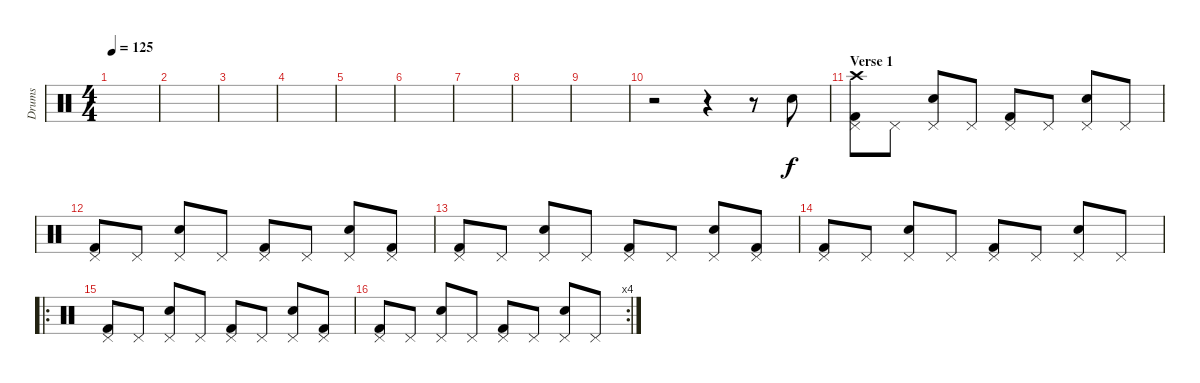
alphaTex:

\track ("Drums" "Drums") {instrument percussion}
\staff {score}
\articulation defaults
\ts (4 4)
\tempo 125
\clef neutral
\ks c
|
|
|
|
|
|
|
|
|
r.2 r.4 r.8 "Electric Snare (hit)".8 |
\section ("" "Verse 1")
("Crash high (hit)" "Kick (hit) 2" "Pedal Hi-Hat (hit)").8 "Pedal Hi-Hat (hit)".8 ("Electric Snare (hit)" "Pedal Hi-Hat (hit)").8 "Pedal Hi-Hat (hit)".8 ("Kick (hit) 2" "Pedal Hi-Hat (hit)").8 "Pedal Hi-Hat (hit)".8 ("Electric Snare (hit)" "Pedal Hi-Hat (hit)").8 "Pedal Hi-Hat (hit)".8 |
("Kick (hit) 2" "Pedal Hi-Hat (hit)").8 "Pedal Hi-Hat (hit)".8 ("Electric Snare (hit)" "Pedal Hi-Hat (hit)").8 "Pedal Hi-Hat (hit)".8 ("Kick (hit) 2" "Pedal Hi-Hat (hit)").8 "Pedal Hi-Hat (hit)".8 ("Electric Snare (hit)" "Pedal Hi-Hat (hit)").8 ("Kick (hit) 2" "Pedal Hi-Hat (hit)").8 |
("Kick (hit) 2" "Pedal Hi-Hat (hit)").8 "Pedal Hi-Hat (hit)".8 ("Electric Snare (hit)" "Pedal Hi-Hat (hit)").8 "Pedal Hi-Hat (hit)".8 ("Kick (hit) 2" "Pedal Hi-Hat (hit)").8 "Pedal Hi-Hat (hit)".8 ("Electric Snare (hit)" "Pedal Hi-Hat (hit)").8 ("Kick (hit) 2" "Pedal Hi-Hat (hit)").8 |
("Kick (hit) 2" "Pedal Hi-Hat (hit)").8 "Pedal Hi-Hat (hit)".8 ("Electric Snare (hit)" "Pedal Hi-Hat (hit)").8 "Pedal Hi-Hat (hit)".8 ("Kick (hit) 2" "Pedal Hi-Hat (hit)").8 "Pedal Hi-Hat (hit)".8 ("Electric Snare (hit)" "Pedal Hi-Hat (hit)").8 "Pedal Hi-Hat (hit)".8 |
\ro
("Kick (hit) 2" "Pedal Hi-Hat (hit)").8 "Pedal Hi-Hat (hit)".8 ("Electric Snare (hit)" "Pedal Hi-Hat (hit)").8 "Pedal Hi-Hat (hit)".8 ("Kick (hit) 2" "Pedal Hi-Hat (hit)").8 "Pedal Hi-Hat (hit)".8 ("Electric Snare (hit)" "Pedal Hi-Hat (hit)").8 ("Kick (hit) 2" "Pedal Hi-Hat (hit)").8 |
\rc 4
("Kick (hit) 2" "Pedal Hi-Hat (hit)").8 "Pedal Hi-Hat (hit)".8 ("Electric Snare (hit)" "Pedal Hi-Hat (hit)").8 "Pedal Hi-Hat (hit)".8 ("Kick (hit) 2" "Pedal Hi-Hat (hit)").8 "Pedal Hi-Hat (hit)".8 ("Electric Snare (hit)" "Pedal Hi-Hat (hit)").8 "Pedal Hi-Hat (hit)".8
